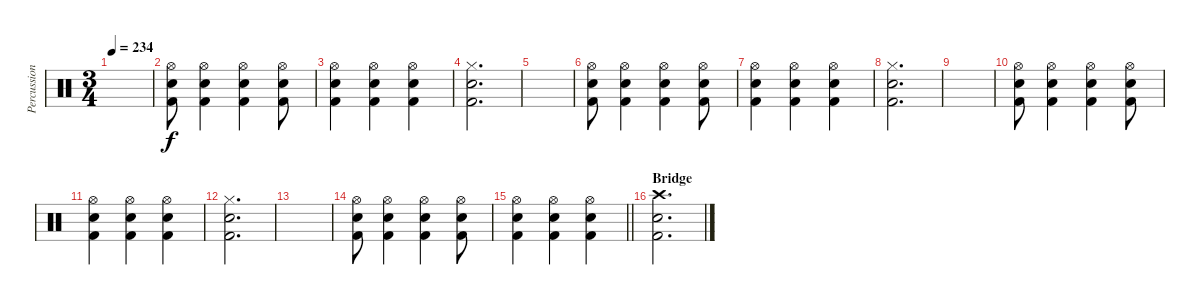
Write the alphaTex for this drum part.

\track ("Percussion" "Percussion") {instrument percussion}
\staff {score}
\articulation defaults
\ts (3 4)
\tempo 234
\clef neutral
\ks c
|
("Hi-Hat (open)" "Snare (hit) 2" "Kick (hit) 2").8 ("Hi-Hat (open)" "Snare (hit) 2" "Kick (hit) 2").4 ("Hi-Hat (open)" "Snare (hit) 2" "Kick (hit) 2").4 ("Hi-Hat (open)" "Snare (hit) 2" "Kick (hit) 2").8 |
("Hi-Hat (open)" "Snare (hit) 2" "Kick (hit) 2").4 ("Hi-Hat (open)" "Snare (hit) 2" "Kick (hit) 2").4 ("Hi-Hat (open)" "Snare (hit) 2" "Kick (hit) 2").4 |
("Hi-Hat (closed)" "Snare (hit) 2" "Kick (hit) 2").2{d} |
|
("Hi-Hat (open)" "Snare (hit) 2" "Kick (hit) 2").8 ("Hi-Hat (open)" "Snare (hit) 2" "Kick (hit) 2").4 ("Hi-Hat (open)" "Snare (hit) 2" "Kick (hit) 2").4 ("Hi-Hat (open)" "Snare (hit) 2" "Kick (hit) 2").8 |
("Hi-Hat (open)" "Snare (hit) 2" "Kick (hit) 2").4 ("Hi-Hat (open)" "Snare (hit) 2" "Kick (hit) 2").4 ("Hi-Hat (open)" "Snare (hit) 2" "Kick (hit) 2").4 |
("Hi-Hat (closed)" "Snare (hit) 2" "Kick (hit) 2").2{d} |
|
("Hi-Hat (open)" "Snare (hit) 2" "Kick (hit) 2").8 ("Hi-Hat (open)" "Snare (hit) 2" "Kick (hit) 2").4 ("Hi-Hat (open)" "Snare (hit) 2" "Kick (hit) 2").4 ("Hi-Hat (open)" "Snare (hit) 2" "Kick (hit) 2").8 |
("Hi-Hat (open)" "Snare (hit) 2" "Kick (hit) 2").4 ("Hi-Hat (open)" "Snare (hit) 2" "Kick (hit) 2").4 ("Hi-Hat (open)" "Snare (hit) 2" "Kick (hit) 2").4 |
("Hi-Hat (closed)" "Snare (hit) 2" "Kick (hit) 2").2{d} |
|
("Hi-Hat (open)" "Snare (hit) 2" "Kick (hit) 2").8 ("Hi-Hat (open)" "Snare (hit) 2" "Kick (hit) 2").4 ("Hi-Hat (open)" "Snare (hit) 2" "Kick (hit) 2").4 ("Hi-Hat (open)" "Snare (hit) 2" "Kick (hit) 2").8 |
\barLineRight lightlight
("Hi-Hat (open)" "Snare (hit) 2" "Kick (hit) 2").4 ("Hi-Hat (open)" "Snare (hit) 2" "Kick (hit) 2").4 ("Hi-Hat (open)" "Snare (hit) 2" "Kick (hit) 2").4 |
\section ("" "Bridge")
("Crash high (hit)" "Snare (hit) 2" "Kick (hit) 2").2{d}
